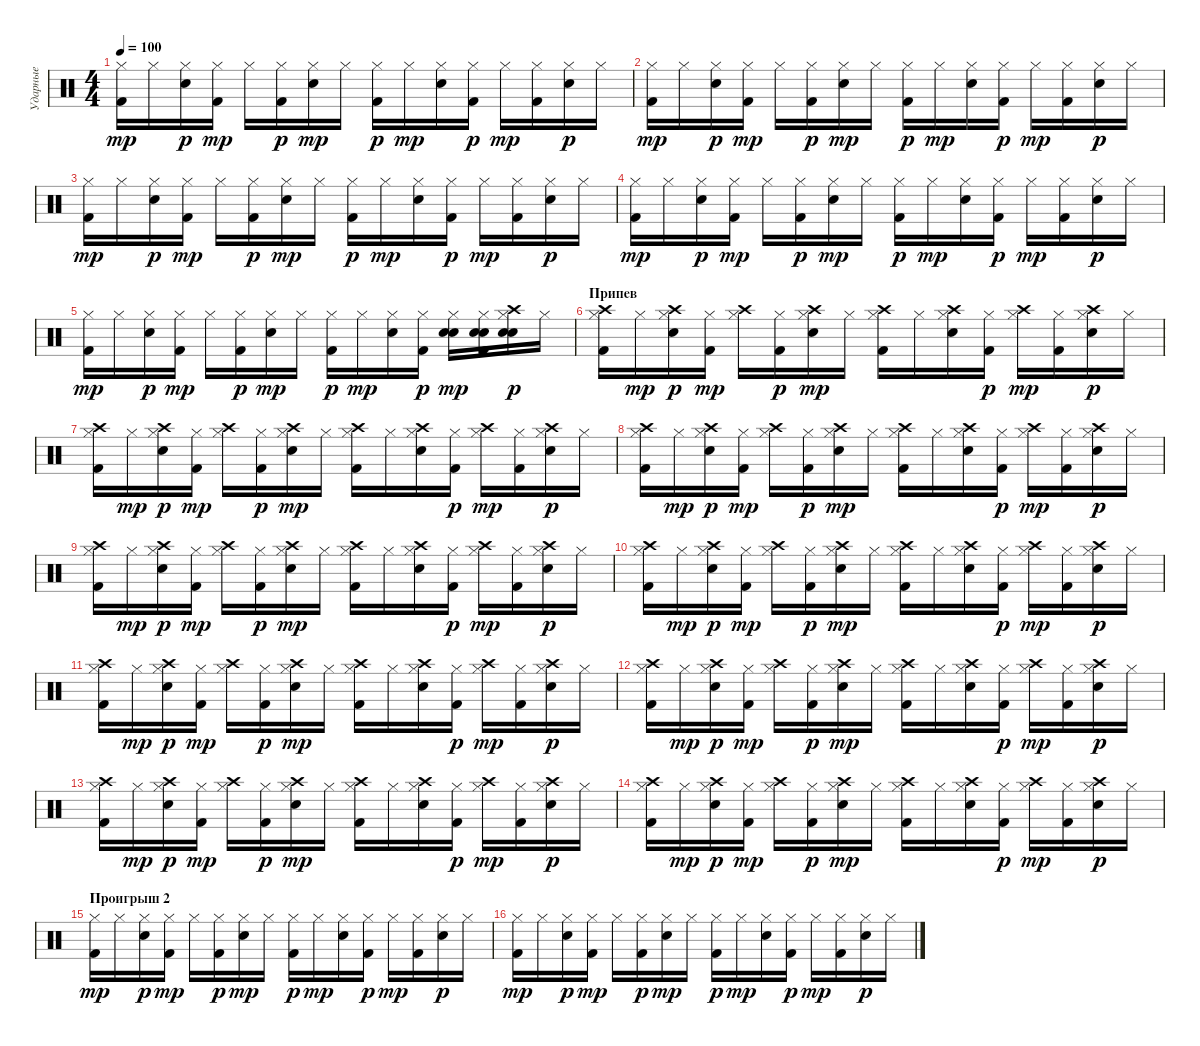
\track ("Ударные" "Ударные") {instrument percussion}
\staff {score}
\articulation defaults
\ts (4 4)
\tempo 100
\clef neutral
\ks c
("Hi-Hat (closed)" "Kick (hit) 2").16{dy mp} "Hi-Hat (closed)".16 ("Hi-Hat (closed)" "Electric Snare (hit)").16{dy p} ("Hi-Hat (closed)" "Kick (hit) 2").16{dy mp} "Hi-Hat (closed)".16 ("Hi-Hat (closed)" "Kick (hit) 2").16{dy p} ("Hi-Hat (closed)" "Electric Snare (hit)").16{dy mp} "Hi-Hat (closed)".16 ("Hi-Hat (closed)" "Kick (hit) 2").16{dy p} "Hi-Hat (closed)".16{dy mp} ("Hi-Hat (closed)" "Electric Snare (hit)").16 ("Hi-Hat (closed)" "Kick (hit) 2").16{dy p} "Hi-Hat (closed)".16{dy mp} ("Hi-Hat (closed)" "Kick (hit) 2").16 ("Hi-Hat (closed)" "Electric Snare (hit)").16{dy p} "Hi-Hat (closed)".16 |
("Hi-Hat (closed)" "Kick (hit) 2").16{dy mp} "Hi-Hat (closed)".16 ("Hi-Hat (closed)" "Electric Snare (hit)").16{dy p} ("Hi-Hat (closed)" "Kick (hit) 2").16{dy mp} "Hi-Hat (closed)".16 ("Hi-Hat (closed)" "Kick (hit) 2").16{dy p} ("Hi-Hat (closed)" "Electric Snare (hit)").16{dy mp} "Hi-Hat (closed)".16 ("Hi-Hat (closed)" "Kick (hit) 2").16{dy p} "Hi-Hat (closed)".16{dy mp} ("Hi-Hat (closed)" "Electric Snare (hit)").16 ("Hi-Hat (closed)" "Kick (hit) 2").16{dy p} "Hi-Hat (closed)".16{dy mp} ("Hi-Hat (closed)" "Kick (hit) 2").16 ("Hi-Hat (closed)" "Electric Snare (hit)").16{dy p} "Hi-Hat (closed)".16 |
("Hi-Hat (closed)" "Kick (hit) 2").16{dy mp} "Hi-Hat (closed)".16 ("Hi-Hat (closed)" "Electric Snare (hit)").16{dy p} ("Hi-Hat (closed)" "Kick (hit) 2").16{dy mp} "Hi-Hat (closed)".16 ("Hi-Hat (closed)" "Kick (hit) 2").16{dy p} ("Hi-Hat (closed)" "Electric Snare (hit)").16{dy mp} "Hi-Hat (closed)".16 ("Hi-Hat (closed)" "Kick (hit) 2").16{dy p} "Hi-Hat (closed)".16{dy mp} ("Hi-Hat (closed)" "Electric Snare (hit)").16 ("Hi-Hat (closed)" "Kick (hit) 2").16{dy p} "Hi-Hat (closed)".16{dy mp} ("Hi-Hat (closed)" "Kick (hit) 2").16 ("Hi-Hat (closed)" "Electric Snare (hit)").16{dy p} "Hi-Hat (closed)".16 |
("Hi-Hat (closed)" "Kick (hit) 2").16{dy mp} "Hi-Hat (closed)".16 ("Hi-Hat (closed)" "Electric Snare (hit)").16{dy p} ("Hi-Hat (closed)" "Kick (hit) 2").16{dy mp} "Hi-Hat (closed)".16 ("Hi-Hat (closed)" "Kick (hit) 2").16{dy p} ("Hi-Hat (closed)" "Electric Snare (hit)").16{dy mp} "Hi-Hat (closed)".16 ("Hi-Hat (closed)" "Kick (hit) 2").16{dy p} "Hi-Hat (closed)".16{dy mp} ("Hi-Hat (closed)" "Electric Snare (hit)").16 ("Hi-Hat (closed)" "Kick (hit) 2").16{dy p} "Hi-Hat (closed)".16{dy mp} ("Hi-Hat (closed)" "Kick (hit) 2").16 ("Hi-Hat (closed)" "Electric Snare (hit)").16{dy p} "Hi-Hat (closed)".16 |
("Hi-Hat (closed)" "Kick (hit) 2").16{dy mp} "Hi-Hat (closed)".16 ("Hi-Hat (closed)" "Electric Snare (hit)").16{dy p} ("Hi-Hat (closed)" "Kick (hit) 2").16{dy mp} "Hi-Hat (closed)".16 ("Hi-Hat (closed)" "Kick (hit) 2").16{dy p} ("Hi-Hat (closed)" "Electric Snare (hit)").16{dy mp} "Hi-Hat (closed)".16 ("Hi-Hat (closed)" "Kick (hit) 2").16{dy p} "Hi-Hat (closed)".16{dy mp} ("Hi-Hat (closed)" "Electric Snare (hit)").16 ("Hi-Hat (closed)" "Kick (hit) 2").16{dy p} ("Hi-Hat (closed)" "Electric Snare (hit)" "Electric Snare (hit)").16{dy mp} ("Hi-Hat (closed)" "Electric Snare (hit)" "Kick (hit) 2" "Electric Snare (hit)").16 ("Hi-Hat (closed)" "Electric Snare (hit)" "Crash high (hit)" "Electric Snare (hit)").16{dy p} "Hi-Hat (closed)".16 |
\section ("" "Припев")
("Hi-Hat (closed)" "Kick (hit) 2" "Crash high (hit)").16 "Hi-Hat (closed)".16{dy mp} ("Hi-Hat (closed)" "Electric Snare (hit)" "Crash high (hit)").16{dy p} ("Hi-Hat (closed)" "Kick (hit) 2").16{dy mp} ("Hi-Hat (closed)" "Crash high (hit)").16 ("Hi-Hat (closed)" "Kick (hit) 2").16{dy p} ("Hi-Hat (closed)" "Electric Snare (hit)" "Crash high (hit)").16{dy mp} "Hi-Hat (closed)".16 ("Hi-Hat (closed)" "Kick (hit) 2" "Crash high (hit)").16 "Hi-Hat (closed)".16 ("Hi-Hat (closed)" "Electric Snare (hit)" "Crash high (hit)").16 ("Hi-Hat (closed)" "Kick (hit) 2").16{dy p} ("Hi-Hat (closed)" "Crash high (hit)").16{dy mp} ("Hi-Hat (closed)" "Kick (hit) 2").16 ("Hi-Hat (closed)" "Electric Snare (hit)" "Crash high (hit)").16{dy p} "Hi-Hat (closed)".16 |
("Hi-Hat (closed)" "Kick (hit) 2" "Crash high (hit)").16 "Hi-Hat (closed)".16{dy mp} ("Hi-Hat (closed)" "Electric Snare (hit)" "Crash high (hit)").16{dy p} ("Hi-Hat (closed)" "Kick (hit) 2").16{dy mp} ("Hi-Hat (closed)" "Crash high (hit)").16 ("Hi-Hat (closed)" "Kick (hit) 2").16{dy p} ("Hi-Hat (closed)" "Electric Snare (hit)" "Crash high (hit)").16{dy mp} "Hi-Hat (closed)".16 ("Hi-Hat (closed)" "Kick (hit) 2" "Crash high (hit)").16 "Hi-Hat (closed)".16 ("Hi-Hat (closed)" "Electric Snare (hit)" "Crash high (hit)").16 ("Hi-Hat (closed)" "Kick (hit) 2").16{dy p} ("Hi-Hat (closed)" "Crash high (hit)").16{dy mp} ("Hi-Hat (closed)" "Kick (hit) 2").16 ("Hi-Hat (closed)" "Electric Snare (hit)" "Crash high (hit)").16{dy p} "Hi-Hat (closed)".16 |
("Hi-Hat (closed)" "Kick (hit) 2" "Crash high (hit)").16 "Hi-Hat (closed)".16{dy mp} ("Hi-Hat (closed)" "Electric Snare (hit)" "Crash high (hit)").16{dy p} ("Hi-Hat (closed)" "Kick (hit) 2").16{dy mp} ("Hi-Hat (closed)" "Crash high (hit)").16 ("Hi-Hat (closed)" "Kick (hit) 2").16{dy p} ("Hi-Hat (closed)" "Electric Snare (hit)" "Crash high (hit)").16{dy mp} "Hi-Hat (closed)".16 ("Hi-Hat (closed)" "Kick (hit) 2" "Crash high (hit)").16 "Hi-Hat (closed)".16 ("Hi-Hat (closed)" "Electric Snare (hit)" "Crash high (hit)").16 ("Hi-Hat (closed)" "Kick (hit) 2").16{dy p} ("Hi-Hat (closed)" "Crash high (hit)").16{dy mp} ("Hi-Hat (closed)" "Kick (hit) 2").16 ("Hi-Hat (closed)" "Electric Snare (hit)" "Crash high (hit)").16{dy p} "Hi-Hat (closed)".16 |
("Hi-Hat (closed)" "Kick (hit) 2" "Crash high (hit)").16 "Hi-Hat (closed)".16{dy mp} ("Hi-Hat (closed)" "Electric Snare (hit)" "Crash high (hit)").16{dy p} ("Hi-Hat (closed)" "Kick (hit) 2").16{dy mp} ("Hi-Hat (closed)" "Crash high (hit)").16 ("Hi-Hat (closed)" "Kick (hit) 2").16{dy p} ("Hi-Hat (closed)" "Electric Snare (hit)" "Crash high (hit)").16{dy mp} "Hi-Hat (closed)".16 ("Hi-Hat (closed)" "Kick (hit) 2" "Crash high (hit)").16 "Hi-Hat (closed)".16 ("Hi-Hat (closed)" "Electric Snare (hit)" "Crash high (hit)").16 ("Hi-Hat (closed)" "Kick (hit) 2").16{dy p} ("Hi-Hat (closed)" "Crash high (hit)").16{dy mp} ("Hi-Hat (closed)" "Kick (hit) 2").16 ("Hi-Hat (closed)" "Electric Snare (hit)" "Crash high (hit)").16{dy p} "Hi-Hat (closed)".16 |
("Hi-Hat (closed)" "Kick (hit) 2" "Crash high (hit)").16 "Hi-Hat (closed)".16{dy mp} ("Hi-Hat (closed)" "Electric Snare (hit)" "Crash high (hit)").16{dy p} ("Hi-Hat (closed)" "Kick (hit) 2").16{dy mp} ("Hi-Hat (closed)" "Crash high (hit)").16 ("Hi-Hat (closed)" "Kick (hit) 2").16{dy p} ("Hi-Hat (closed)" "Electric Snare (hit)" "Crash high (hit)").16{dy mp} "Hi-Hat (closed)".16 ("Hi-Hat (closed)" "Kick (hit) 2" "Crash high (hit)").16 "Hi-Hat (closed)".16 ("Hi-Hat (closed)" "Electric Snare (hit)" "Crash high (hit)").16 ("Hi-Hat (closed)" "Kick (hit) 2").16{dy p} ("Hi-Hat (closed)" "Crash high (hit)").16{dy mp} ("Hi-Hat (closed)" "Kick (hit) 2").16 ("Hi-Hat (closed)" "Electric Snare (hit)" "Crash high (hit)").16{dy p} "Hi-Hat (closed)".16 |
("Hi-Hat (closed)" "Kick (hit) 2" "Crash high (hit)").16 "Hi-Hat (closed)".16{dy mp} ("Hi-Hat (closed)" "Electric Snare (hit)" "Crash high (hit)").16{dy p} ("Hi-Hat (closed)" "Kick (hit) 2").16{dy mp} ("Hi-Hat (closed)" "Crash high (hit)").16 ("Hi-Hat (closed)" "Kick (hit) 2").16{dy p} ("Hi-Hat (closed)" "Electric Snare (hit)" "Crash high (hit)").16{dy mp} "Hi-Hat (closed)".16 ("Hi-Hat (closed)" "Kick (hit) 2" "Crash high (hit)").16 "Hi-Hat (closed)".16 ("Hi-Hat (closed)" "Electric Snare (hit)" "Crash high (hit)").16 ("Hi-Hat (closed)" "Kick (hit) 2").16{dy p} ("Hi-Hat (closed)" "Crash high (hit)").16{dy mp} ("Hi-Hat (closed)" "Kick (hit) 2").16 ("Hi-Hat (closed)" "Electric Snare (hit)" "Crash high (hit)").16{dy p} "Hi-Hat (closed)".16 |
("Hi-Hat (closed)" "Kick (hit) 2" "Crash high (hit)").16 "Hi-Hat (closed)".16{dy mp} ("Hi-Hat (closed)" "Electric Snare (hit)" "Crash high (hit)").16{dy p} ("Hi-Hat (closed)" "Kick (hit) 2").16{dy mp} ("Hi-Hat (closed)" "Crash high (hit)").16 ("Hi-Hat (closed)" "Kick (hit) 2").16{dy p} ("Hi-Hat (closed)" "Electric Snare (hit)" "Crash high (hit)").16{dy mp} "Hi-Hat (closed)".16 ("Hi-Hat (closed)" "Kick (hit) 2" "Crash high (hit)").16 "Hi-Hat (closed)".16 ("Hi-Hat (closed)" "Electric Snare (hit)" "Crash high (hit)").16 ("Hi-Hat (closed)" "Kick (hit) 2").16{dy p} ("Hi-Hat (closed)" "Crash high (hit)").16{dy mp} ("Hi-Hat (closed)" "Kick (hit) 2").16 ("Hi-Hat (closed)" "Electric Snare (hit)" "Crash high (hit)").16{dy p} "Hi-Hat (closed)".16 |
("Hi-Hat (closed)" "Kick (hit) 2" "Crash high (hit)").16 "Hi-Hat (closed)".16{dy mp} ("Hi-Hat (closed)" "Electric Snare (hit)" "Crash high (hit)").16{dy p} ("Hi-Hat (closed)" "Kick (hit) 2").16{dy mp} ("Hi-Hat (closed)" "Crash high (hit)").16 ("Hi-Hat (closed)" "Kick (hit) 2").16{dy p} ("Hi-Hat (closed)" "Electric Snare (hit)" "Crash high (hit)").16{dy mp} "Hi-Hat (closed)".16 ("Hi-Hat (closed)" "Kick (hit) 2" "Crash high (hit)").16 "Hi-Hat (closed)".16 ("Hi-Hat (closed)" "Electric Snare (hit)" "Crash high (hit)").16 ("Hi-Hat (closed)" "Kick (hit) 2").16{dy p} ("Hi-Hat (closed)" "Crash high (hit)").16{dy mp} ("Hi-Hat (closed)" "Kick (hit) 2").16 ("Hi-Hat (closed)" "Electric Snare (hit)" "Crash high (hit)").16{dy p} "Hi-Hat (closed)".16 |
("Hi-Hat (closed)" "Kick (hit) 2" "Crash high (hit)").16 "Hi-Hat (closed)".16{dy mp} ("Hi-Hat (closed)" "Electric Snare (hit)" "Crash high (hit)").16{dy p} ("Hi-Hat (closed)" "Kick (hit) 2").16{dy mp} ("Hi-Hat (closed)" "Crash high (hit)").16 ("Hi-Hat (closed)" "Kick (hit) 2").16{dy p} ("Hi-Hat (closed)" "Electric Snare (hit)" "Crash high (hit)").16{dy mp} "Hi-Hat (closed)".16 ("Hi-Hat (closed)" "Kick (hit) 2" "Crash high (hit)").16 "Hi-Hat (closed)".16 ("Hi-Hat (closed)" "Electric Snare (hit)" "Crash high (hit)").16 ("Hi-Hat (closed)" "Kick (hit) 2").16{dy p} ("Hi-Hat (closed)" "Crash high (hit)").16{dy mp} ("Hi-Hat (closed)" "Kick (hit) 2").16 ("Hi-Hat (closed)" "Electric Snare (hit)" "Crash high (hit)").16{dy p} "Hi-Hat (closed)".16 |
\section ("" "Проигрыш 2")
("Hi-Hat (closed)" "Kick (hit) 2").16{dy mp} "Hi-Hat (closed)".16 ("Hi-Hat (closed)" "Electric Snare (hit)").16{dy p} ("Hi-Hat (closed)" "Kick (hit) 2").16{dy mp} "Hi-Hat (closed)".16 ("Hi-Hat (closed)" "Kick (hit) 2").16{dy p} ("Hi-Hat (closed)" "Electric Snare (hit)").16{dy mp} "Hi-Hat (closed)".16 ("Hi-Hat (closed)" "Kick (hit) 2").16{dy p} "Hi-Hat (closed)".16{dy mp} ("Hi-Hat (closed)" "Electric Snare (hit)").16 ("Hi-Hat (closed)" "Kick (hit) 2").16{dy p} "Hi-Hat (closed)".16{dy mp} ("Hi-Hat (closed)" "Kick (hit) 2").16 ("Hi-Hat (closed)" "Electric Snare (hit)").16{dy p} "Hi-Hat (closed)".16 |
("Hi-Hat (closed)" "Kick (hit) 2").16{dy mp} "Hi-Hat (closed)".16 ("Hi-Hat (closed)" "Electric Snare (hit)").16{dy p} ("Hi-Hat (closed)" "Kick (hit) 2").16{dy mp} "Hi-Hat (closed)".16 ("Hi-Hat (closed)" "Kick (hit) 2").16{dy p} ("Hi-Hat (closed)" "Electric Snare (hit)").16{dy mp} "Hi-Hat (closed)".16 ("Hi-Hat (closed)" "Kick (hit) 2").16{dy p} "Hi-Hat (closed)".16{dy mp} ("Hi-Hat (closed)" "Electric Snare (hit)").16 ("Hi-Hat (closed)" "Kick (hit) 2").16{dy p} "Hi-Hat (closed)".16{dy mp} ("Hi-Hat (closed)" "Kick (hit) 2").16 ("Hi-Hat (closed)" "Electric Snare (hit)").16{dy p} "Hi-Hat (closed)".16
